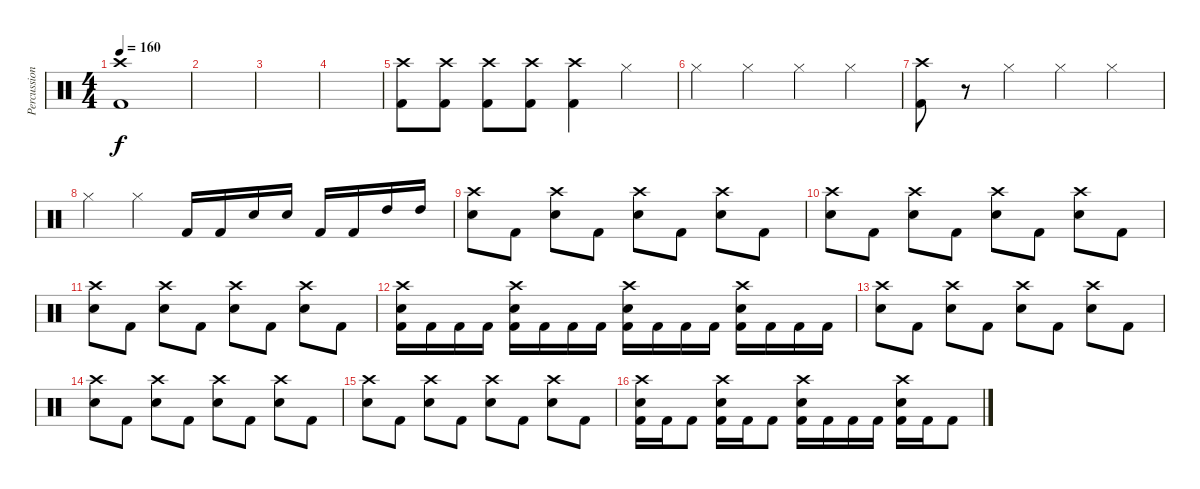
\track ("Percussion" "Percussion") {instrument percussion}
\staff {score}
\articulation defaults
\ts (4 4)
\tempo 160
\clef neutral
\ks c
("Crash high (hit)" "Kick (hit) 2").1{dy f} |
|
|
|
("Crash high (hit)" "Kick (hit) 2").8 ("Crash high (hit)" "Kick (hit) 2").8 ("Crash high (hit)" "Kick (hit) 2").8 ("Crash high (hit)" "Kick (hit) 2").8 ("Crash high (hit)" "Kick (hit) 2").4 "Hi-Hat (closed)".4 |
"Hi-Hat (closed)".4 "Hi-Hat (closed)".4 "Hi-Hat (closed)".4 "Hi-Hat (closed)".4 |
("Crash high (hit)" "Kick (hit) 2").8 r.8 "Hi-Hat (closed)".4 "Hi-Hat (closed)".4 "Hi-Hat (closed)".4 |
"Hi-Hat (closed)".4 "Hi-Hat (closed)".4 "Kick (hit) 2".16 "Kick (hit) 2".16 "Electric Snare (hit)".16 "Electric Snare (hit)".16 "Kick (hit) 2".16 "Kick (hit) 2".16 "High Tom (hit)".16 "High Tom (hit)".16 |
("Crash high (hit)" "Electric Snare (hit)").8 "Kick (hit) 2".8 ("Crash high (hit)" "Electric Snare (hit)").8 "Kick (hit) 2".8 ("Crash high (hit)" "Electric Snare (hit)").8 "Kick (hit) 2".8 ("Crash high (hit)" "Electric Snare (hit)").8 "Kick (hit) 2".8 |
("Crash high (hit)" "Electric Snare (hit)").8 "Kick (hit) 2".8 ("Crash high (hit)" "Electric Snare (hit)").8 "Kick (hit) 2".8 ("Crash high (hit)" "Electric Snare (hit)").8 "Kick (hit) 2".8 ("Crash high (hit)" "Electric Snare (hit)").8 "Kick (hit) 2".8 |
("Crash high (hit)" "Electric Snare (hit)").8 "Kick (hit) 2".8 ("Crash high (hit)" "Electric Snare (hit)").8 "Kick (hit) 2".8 ("Crash high (hit)" "Electric Snare (hit)").8 "Kick (hit) 2".8 ("Crash high (hit)" "Electric Snare (hit)").8 "Kick (hit) 2".8 |
("Crash high (hit)" "Electric Snare (hit)" "Kick (hit) 2").16 "Kick (hit) 2".16 "Kick (hit) 2".16 "Kick (hit) 2".16 ("Crash high (hit)" "Electric Snare (hit)" "Kick (hit) 2").16 "Kick (hit) 2".16 "Kick (hit) 2".16 "Kick (hit) 2".16 ("Crash high (hit)" "Electric Snare (hit)" "Kick (hit) 2").16 "Kick (hit) 2".16 "Kick (hit) 2".16 "Kick (hit) 2".16 ("Crash high (hit)" "Electric Snare (hit)" "Kick (hit) 2").16 "Kick (hit) 2".16 "Kick (hit) 2".16 "Kick (hit) 2".16 |
("Crash high (hit)" "Electric Snare (hit)").8 "Kick (hit) 2".8 ("Crash high (hit)" "Electric Snare (hit)").8 "Kick (hit) 2".8 ("Crash high (hit)" "Electric Snare (hit)").8 "Kick (hit) 2".8 ("Crash high (hit)" "Electric Snare (hit)").8 "Kick (hit) 2".8 |
("Crash high (hit)" "Electric Snare (hit)").8 "Kick (hit) 2".8 ("Crash high (hit)" "Electric Snare (hit)").8 "Kick (hit) 2".8 ("Crash high (hit)" "Electric Snare (hit)").8 "Kick (hit) 2".8 ("Crash high (hit)" "Electric Snare (hit)").8 "Kick (hit) 2".8 |
("Crash high (hit)" "Electric Snare (hit)").8 "Kick (hit) 2".8 ("Crash high (hit)" "Electric Snare (hit)").8 "Kick (hit) 2".8 ("Crash high (hit)" "Electric Snare (hit)").8 "Kick (hit) 2".8 ("Crash high (hit)" "Electric Snare (hit)").8 "Kick (hit) 2".8 |
("Crash high (hit)" "Electric Snare (hit)" "Kick (hit) 2").16 "Kick (hit) 2".16 "Kick (hit) 2".8 ("Crash high (hit)" "Electric Snare (hit)" "Kick (hit) 2").16 "Kick (hit) 2".16 "Kick (hit) 2".8 ("Crash high (hit)" "Electric Snare (hit)" "Kick (hit) 2").16 "Kick (hit) 2".16 "Kick (hit) 2".16 "Kick (hit) 2".16 ("Crash high (hit)" "Electric Snare (hit)" "Kick (hit) 2").16 "Kick (hit) 2".16 "Kick (hit) 2".8
